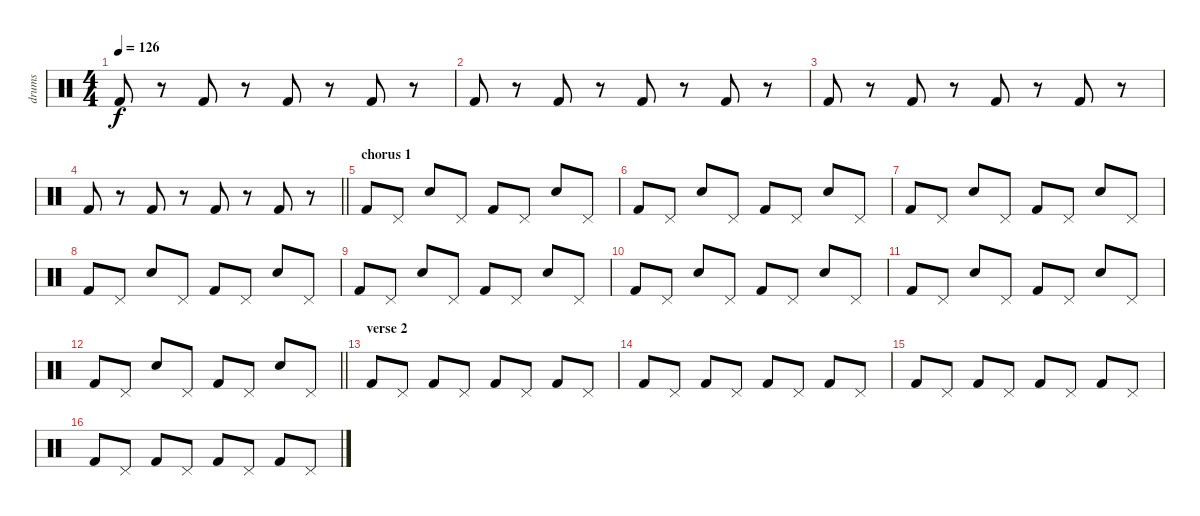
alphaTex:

\track ("drums" "drums") {instrument percussion}
\staff {score}
\articulation defaults
\ts (4 4)
\tempo 126
\clef neutral
\ks c "Kick (hit) 2".8{dy f}
r.8 "Kick (hit) 2".8 r.8 "Kick (hit) 2".8 r.8 "Kick (hit) 2".8 r.8 |
"Kick (hit) 2".8 r.8 "Kick (hit) 2".8 r.8 "Kick (hit) 2".8 r.8 "Kick (hit) 2".8 r.8 |
"Kick (hit) 2".8 r.8 "Kick (hit) 2".8 r.8 "Kick (hit) 2".8 r.8 "Kick (hit) 2".8 r.8 |
\barLineRight lightlight "Kick (hit) 2".8
r.8 "Kick (hit) 2".8 r.8 "Kick (hit) 2".8 r.8 "Kick (hit) 2".8 r.8 |
\section ("" "chorus 1")
"Kick (hit) 2".8 "Pedal Hi-Hat (hit)".8 "Hand Clap (hit)".8 "Pedal Hi-Hat (hit)".8 "Kick (hit) 2".8 "Pedal Hi-Hat (hit)".8 "Hand Clap (hit)".8 "Pedal Hi-Hat (hit)".8 |
"Kick (hit) 2".8 "Pedal Hi-Hat (hit)".8 "Hand Clap (hit)".8 "Pedal Hi-Hat (hit)".8 "Kick (hit) 2".8 "Pedal Hi-Hat (hit)".8 "Hand Clap (hit)".8 "Pedal Hi-Hat (hit)".8 |
"Kick (hit) 2".8 "Pedal Hi-Hat (hit)".8 "Hand Clap (hit)".8 "Pedal Hi-Hat (hit)".8 "Kick (hit) 2".8 "Pedal Hi-Hat (hit)".8 "Hand Clap (hit)".8 "Pedal Hi-Hat (hit)".8 |
"Kick (hit) 2".8 "Pedal Hi-Hat (hit)".8 "Hand Clap (hit)".8 "Pedal Hi-Hat (hit)".8 "Kick (hit) 2".8 "Pedal Hi-Hat (hit)".8 "Hand Clap (hit)".8 "Pedal Hi-Hat (hit)".8 |
"Kick (hit) 2".8 "Pedal Hi-Hat (hit)".8 "Hand Clap (hit)".8 "Pedal Hi-Hat (hit)".8 "Kick (hit) 2".8 "Pedal Hi-Hat (hit)".8 "Hand Clap (hit)".8 "Pedal Hi-Hat (hit)".8 |
"Kick (hit) 2".8 "Pedal Hi-Hat (hit)".8 "Hand Clap (hit)".8 "Pedal Hi-Hat (hit)".8 "Kick (hit) 2".8 "Pedal Hi-Hat (hit)".8 "Hand Clap (hit)".8 "Pedal Hi-Hat (hit)".8 |
"Kick (hit) 2".8 "Pedal Hi-Hat (hit)".8 "Hand Clap (hit)".8 "Pedal Hi-Hat (hit)".8 "Kick (hit) 2".8 "Pedal Hi-Hat (hit)".8 "Hand Clap (hit)".8 "Pedal Hi-Hat (hit)".8 |
\barLineRight lightlight "Kick (hit) 2".8 "Pedal Hi-Hat (hit)".8 "Hand Clap (hit)".8 "Pedal Hi-Hat (hit)".8 "Kick (hit) 2".8 "Pedal Hi-Hat (hit)".8 "Hand Clap (hit)".8 "Pedal Hi-Hat (hit)".8
|
\section ("" "verse 2")
"Kick (hit) 2".8 "Pedal Hi-Hat (hit)".8 "Kick (hit) 2".8 "Pedal Hi-Hat (hit)".8 "Kick (hit) 2".8 "Pedal Hi-Hat (hit)".8 "Kick (hit) 2".8 "Pedal Hi-Hat (hit)".8 |
"Kick (hit) 2".8 "Pedal Hi-Hat (hit)".8 "Kick (hit) 2".8 "Pedal Hi-Hat (hit)".8 "Kick (hit) 2".8 "Pedal Hi-Hat (hit)".8 "Kick (hit) 2".8 "Pedal Hi-Hat (hit)".8 |
"Kick (hit) 2".8 "Pedal Hi-Hat (hit)".8 "Kick (hit) 2".8 "Pedal Hi-Hat (hit)".8 "Kick (hit) 2".8 "Pedal Hi-Hat (hit)".8 "Kick (hit) 2".8 "Pedal Hi-Hat (hit)".8 |
"Kick (hit) 2".8 "Pedal Hi-Hat (hit)".8 "Kick (hit) 2".8 "Pedal Hi-Hat (hit)".8 "Kick (hit) 2".8 "Pedal Hi-Hat (hit)".8 "Kick (hit) 2".8 "Pedal Hi-Hat (hit)".8
